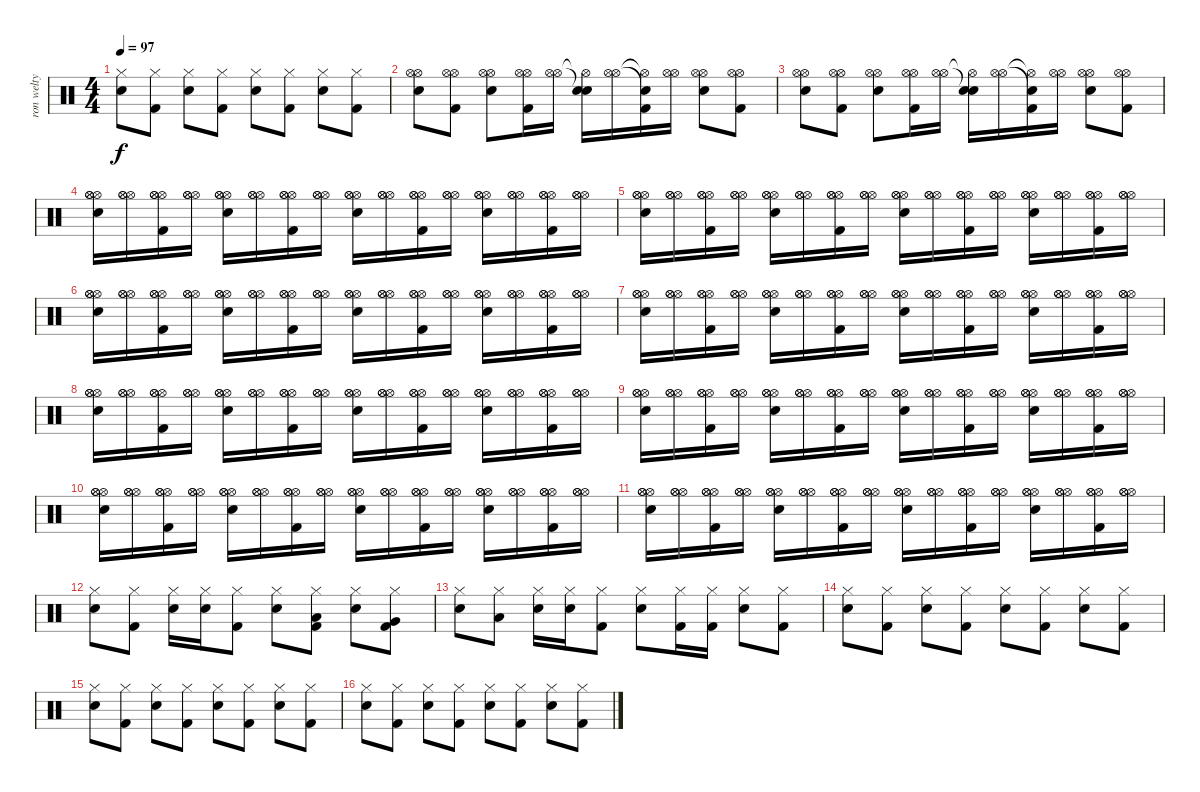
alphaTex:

\track ("ron welty" "ron welty") {instrument percussion}
\staff {score}
\articulation defaults
\ts (4 4)
\tempo 97
\clef neutral
\ks c
("Hi-Hat (closed)" "Electric Snare (hit)").8{dy f} ("Hi-Hat (closed)" "Kick (hit) 2").8 ("Hi-Hat (closed)" "Electric Snare (hit)").8 ("Hi-Hat (closed)" "Kick (hit) 2").8 ("Hi-Hat (closed)" "Electric Snare (hit)").8 ("Hi-Hat (closed)" "Kick (hit) 2").8 ("Hi-Hat (closed)" "Electric Snare (hit)").8 ("Hi-Hat (closed)" "Kick (hit) 2").8 |
("Hi-Hat (open)" "Hi-Hat (open)" "Electric Snare (hit)").8 ("Hi-Hat (open)" "Hi-Hat (open)" "Kick (hit) 2").8 ("Hi-Hat (open)" "Hi-Hat (open)" "Electric Snare (hit)").8 ("Hi-Hat (open)" "Hi-Hat (open)" "Kick (hit) 2").16 ("Hi-Hat (open)" "Hi-Hat (open)").16 ("Hi-Hat (open)"{t} "Snare (hit)"{t} "Electric Snare (hit)").16 ("Hi-Hat (open)" "Hi-Hat (open)").16 ("Hi-Hat (open)"{t} "Snare (hit)"{t} "Kick (hit) 2").16 ("Hi-Hat (open)" "Hi-Hat (open)").16 ("Hi-Hat (open)" "Hi-Hat (open)" "Electric Snare (hit)").8 ("Hi-Hat (open)" "Hi-Hat (open)" "Kick (hit) 2").8 |
("Hi-Hat (open)" "Hi-Hat (open)" "Electric Snare (hit)").8 ("Hi-Hat (open)" "Hi-Hat (open)" "Kick (hit) 2").8 ("Hi-Hat (open)" "Hi-Hat (open)" "Electric Snare (hit)").8 ("Hi-Hat (open)" "Hi-Hat (open)" "Kick (hit) 2").16 ("Hi-Hat (open)" "Hi-Hat (open)").16 ("Hi-Hat (open)"{t} "Snare (hit)"{t} "Electric Snare (hit)").16 ("Hi-Hat (open)" "Hi-Hat (open)").16 ("Hi-Hat (open)"{t} "Snare (hit)"{t} "Kick (hit) 2").16 ("Hi-Hat (open)" "Hi-Hat (open)").16 ("Hi-Hat (open)" "Hi-Hat (open)" "Electric Snare (hit)").8 ("Hi-Hat (open)" "Hi-Hat (open)" "Kick (hit) 2").8 |
("Hi-Hat (open)" "Hi-Hat (open)" "Hi-Hat (open)" "Electric Snare (hit)").16{volume 12} ("Hi-Hat (open)" "Hi-Hat (open)" "Hi-Hat (open)").16 ("Hi-Hat (open)" "Hi-Hat (open)" "Hi-Hat (open)" "Kick (hit) 2").16 ("Hi-Hat (open)" "Hi-Hat (open)" "Hi-Hat (open)").16 ("Hi-Hat (open)" "Hi-Hat (open)" "Hi-Hat (open)" "Electric Snare (hit)").16 ("Hi-Hat (open)" "Hi-Hat (open)" "Hi-Hat (open)").16 ("Hi-Hat (open)" "Hi-Hat (open)" "Hi-Hat (open)" "Kick (hit) 2").16 ("Hi-Hat (open)" "Hi-Hat (open)" "Hi-Hat (open)").16 ("Hi-Hat (open)" "Hi-Hat (open)" "Hi-Hat (open)" "Electric Snare (hit)").16 ("Hi-Hat (open)" "Hi-Hat (open)" "Hi-Hat (open)").16 ("Hi-Hat (open)" "Hi-Hat (open)" "Hi-Hat (open)" "Kick (hit) 2").16 ("Hi-Hat (open)" "Hi-Hat (open)" "Hi-Hat (open)").16 ("Hi-Hat (open)" "Hi-Hat (open)" "Hi-Hat (open)" "Electric Snare (hit)").16 ("Hi-Hat (open)" "Hi-Hat (open)" "Hi-Hat (open)").16 ("Hi-Hat (open)" "Hi-Hat (open)" "Hi-Hat (open)" "Kick (hit) 2").16 ("Hi-Hat (open)" "Hi-Hat (open)" "Hi-Hat (open)").16 |
("Hi-Hat (open)" "Hi-Hat (open)" "Hi-Hat (open)" "Electric Snare (hit)").16{volume 12} ("Hi-Hat (open)" "Hi-Hat (open)" "Hi-Hat (open)").16 ("Hi-Hat (open)" "Hi-Hat (open)" "Hi-Hat (open)" "Kick (hit) 2").16 ("Hi-Hat (open)" "Hi-Hat (open)" "Hi-Hat (open)").16 ("Hi-Hat (open)" "Hi-Hat (open)" "Hi-Hat (open)" "Electric Snare (hit)").16 ("Hi-Hat (open)" "Hi-Hat (open)" "Hi-Hat (open)").16 ("Hi-Hat (open)" "Hi-Hat (open)" "Hi-Hat (open)" "Kick (hit) 2").16 ("Hi-Hat (open)" "Hi-Hat (open)" "Hi-Hat (open)").16 ("Hi-Hat (open)" "Hi-Hat (open)" "Hi-Hat (open)" "Electric Snare (hit)").16 ("Hi-Hat (open)" "Hi-Hat (open)" "Hi-Hat (open)").16 ("Hi-Hat (open)" "Hi-Hat (open)" "Hi-Hat (open)" "Kick (hit) 2").16 ("Hi-Hat (open)" "Hi-Hat (open)" "Hi-Hat (open)").16 ("Hi-Hat (open)" "Hi-Hat (open)" "Hi-Hat (open)" "Electric Snare (hit)").16 ("Hi-Hat (open)" "Hi-Hat (open)" "Hi-Hat (open)").16 ("Hi-Hat (open)" "Hi-Hat (open)" "Hi-Hat (open)" "Kick (hit) 2").16 ("Hi-Hat (open)" "Hi-Hat (open)" "Hi-Hat (open)").16 |
("Hi-Hat (open)" "Hi-Hat (open)" "Hi-Hat (open)" "Electric Snare (hit)").16{volume 12} ("Hi-Hat (open)" "Hi-Hat (open)" "Hi-Hat (open)").16 ("Hi-Hat (open)" "Hi-Hat (open)" "Hi-Hat (open)" "Kick (hit) 2").16 ("Hi-Hat (open)" "Hi-Hat (open)" "Hi-Hat (open)").16 ("Hi-Hat (open)" "Hi-Hat (open)" "Hi-Hat (open)" "Electric Snare (hit)").16 ("Hi-Hat (open)" "Hi-Hat (open)" "Hi-Hat (open)").16 ("Hi-Hat (open)" "Hi-Hat (open)" "Hi-Hat (open)" "Kick (hit) 2").16 ("Hi-Hat (open)" "Hi-Hat (open)" "Hi-Hat (open)").16 ("Hi-Hat (open)" "Hi-Hat (open)" "Hi-Hat (open)" "Electric Snare (hit)").16 ("Hi-Hat (open)" "Hi-Hat (open)" "Hi-Hat (open)").16 ("Hi-Hat (open)" "Hi-Hat (open)" "Hi-Hat (open)" "Kick (hit) 2").16 ("Hi-Hat (open)" "Hi-Hat (open)" "Hi-Hat (open)").16 ("Hi-Hat (open)" "Hi-Hat (open)" "Hi-Hat (open)" "Electric Snare (hit)").16 ("Hi-Hat (open)" "Hi-Hat (open)" "Hi-Hat (open)").16 ("Hi-Hat (open)" "Hi-Hat (open)" "Hi-Hat (open)" "Kick (hit) 2").16 ("Hi-Hat (open)" "Hi-Hat (open)" "Hi-Hat (open)").16 |
("Hi-Hat (open)" "Hi-Hat (open)" "Hi-Hat (open)" "Electric Snare (hit)").16{volume 12} ("Hi-Hat (open)" "Hi-Hat (open)" "Hi-Hat (open)").16 ("Hi-Hat (open)" "Hi-Hat (open)" "Hi-Hat (open)" "Kick (hit) 2").16 ("Hi-Hat (open)" "Hi-Hat (open)" "Hi-Hat (open)").16 ("Hi-Hat (open)" "Hi-Hat (open)" "Hi-Hat (open)" "Electric Snare (hit)").16 ("Hi-Hat (open)" "Hi-Hat (open)" "Hi-Hat (open)").16 ("Hi-Hat (open)" "Hi-Hat (open)" "Hi-Hat (open)" "Kick (hit) 2").16 ("Hi-Hat (open)" "Hi-Hat (open)" "Hi-Hat (open)").16 ("Hi-Hat (open)" "Hi-Hat (open)" "Hi-Hat (open)" "Electric Snare (hit)").16 ("Hi-Hat (open)" "Hi-Hat (open)" "Hi-Hat (open)").16 ("Hi-Hat (open)" "Hi-Hat (open)" "Hi-Hat (open)" "Kick (hit) 2").16 ("Hi-Hat (open)" "Hi-Hat (open)" "Hi-Hat (open)").16 ("Hi-Hat (open)" "Hi-Hat (open)" "Hi-Hat (open)" "Electric Snare (hit)").16 ("Hi-Hat (open)" "Hi-Hat (open)" "Hi-Hat (open)").16 ("Hi-Hat (open)" "Hi-Hat (open)" "Hi-Hat (open)" "Kick (hit) 2").16 ("Hi-Hat (open)" "Hi-Hat (open)" "Hi-Hat (open)").16 |
("Hi-Hat (open)" "Hi-Hat (open)" "Hi-Hat (open)" "Electric Snare (hit)").16{volume 12} ("Hi-Hat (open)" "Hi-Hat (open)" "Hi-Hat (open)").16 ("Hi-Hat (open)" "Hi-Hat (open)" "Hi-Hat (open)" "Kick (hit) 2").16 ("Hi-Hat (open)" "Hi-Hat (open)" "Hi-Hat (open)").16 ("Hi-Hat (open)" "Hi-Hat (open)" "Hi-Hat (open)" "Electric Snare (hit)").16 ("Hi-Hat (open)" "Hi-Hat (open)" "Hi-Hat (open)").16 ("Hi-Hat (open)" "Hi-Hat (open)" "Hi-Hat (open)" "Kick (hit) 2").16 ("Hi-Hat (open)" "Hi-Hat (open)" "Hi-Hat (open)").16 ("Hi-Hat (open)" "Hi-Hat (open)" "Hi-Hat (open)" "Electric Snare (hit)").16 ("Hi-Hat (open)" "Hi-Hat (open)" "Hi-Hat (open)").16 ("Hi-Hat (open)" "Hi-Hat (open)" "Hi-Hat (open)" "Kick (hit) 2").16 ("Hi-Hat (open)" "Hi-Hat (open)" "Hi-Hat (open)").16 ("Hi-Hat (open)" "Hi-Hat (open)" "Hi-Hat (open)" "Electric Snare (hit)").16 ("Hi-Hat (open)" "Hi-Hat (open)" "Hi-Hat (open)").16 ("Hi-Hat (open)" "Hi-Hat (open)" "Hi-Hat (open)" "Kick (hit) 2").16 ("Hi-Hat (open)" "Hi-Hat (open)" "Hi-Hat (open)").16 |
("Hi-Hat (open)" "Hi-Hat (open)" "Hi-Hat (open)" "Electric Snare (hit)").16{volume 12} ("Hi-Hat (open)" "Hi-Hat (open)" "Hi-Hat (open)").16 ("Hi-Hat (open)" "Hi-Hat (open)" "Hi-Hat (open)" "Kick (hit) 2").16 ("Hi-Hat (open)" "Hi-Hat (open)" "Hi-Hat (open)").16 ("Hi-Hat (open)" "Hi-Hat (open)" "Hi-Hat (open)" "Electric Snare (hit)").16 ("Hi-Hat (open)" "Hi-Hat (open)" "Hi-Hat (open)").16 ("Hi-Hat (open)" "Hi-Hat (open)" "Hi-Hat (open)" "Kick (hit) 2").16 ("Hi-Hat (open)" "Hi-Hat (open)" "Hi-Hat (open)").16 ("Hi-Hat (open)" "Hi-Hat (open)" "Hi-Hat (open)" "Electric Snare (hit)").16 ("Hi-Hat (open)" "Hi-Hat (open)" "Hi-Hat (open)").16 ("Hi-Hat (open)" "Hi-Hat (open)" "Hi-Hat (open)" "Kick (hit) 2").16 ("Hi-Hat (open)" "Hi-Hat (open)" "Hi-Hat (open)").16 ("Hi-Hat (open)" "Hi-Hat (open)" "Hi-Hat (open)" "Electric Snare (hit)").16 ("Hi-Hat (open)" "Hi-Hat (open)" "Hi-Hat (open)").16 ("Hi-Hat (open)" "Hi-Hat (open)" "Hi-Hat (open)" "Kick (hit) 2").16 ("Hi-Hat (open)" "Hi-Hat (open)" "Hi-Hat (open)").16 |
("Hi-Hat (open)" "Hi-Hat (open)" "Hi-Hat (open)" "Electric Snare (hit)").16{volume 12} ("Hi-Hat (open)" "Hi-Hat (open)" "Hi-Hat (open)").16 ("Hi-Hat (open)" "Hi-Hat (open)" "Hi-Hat (open)" "Kick (hit) 2").16 ("Hi-Hat (open)" "Hi-Hat (open)" "Hi-Hat (open)").16 ("Hi-Hat (open)" "Hi-Hat (open)" "Hi-Hat (open)" "Electric Snare (hit)").16 ("Hi-Hat (open)" "Hi-Hat (open)" "Hi-Hat (open)").16 ("Hi-Hat (open)" "Hi-Hat (open)" "Hi-Hat (open)" "Kick (hit) 2").16 ("Hi-Hat (open)" "Hi-Hat (open)" "Hi-Hat (open)").16 ("Hi-Hat (open)" "Hi-Hat (open)" "Hi-Hat (open)" "Electric Snare (hit)").16 ("Hi-Hat (open)" "Hi-Hat (open)" "Hi-Hat (open)").16 ("Hi-Hat (open)" "Hi-Hat (open)" "Hi-Hat (open)" "Kick (hit) 2").16 ("Hi-Hat (open)" "Hi-Hat (open)" "Hi-Hat (open)").16 ("Hi-Hat (open)" "Hi-Hat (open)" "Hi-Hat (open)" "Electric Snare (hit)").16 ("Hi-Hat (open)" "Hi-Hat (open)" "Hi-Hat (open)").16 ("Hi-Hat (open)" "Hi-Hat (open)" "Hi-Hat (open)" "Kick (hit) 2").16 ("Hi-Hat (open)" "Hi-Hat (open)" "Hi-Hat (open)").16 |
("Hi-Hat (open)" "Hi-Hat (open)" "Hi-Hat (open)" "Electric Snare (hit)").16{volume 12} ("Hi-Hat (open)" "Hi-Hat (open)" "Hi-Hat (open)").16 ("Hi-Hat (open)" "Hi-Hat (open)" "Hi-Hat (open)" "Kick (hit) 2").16 ("Hi-Hat (open)" "Hi-Hat (open)" "Hi-Hat (open)").16 ("Hi-Hat (open)" "Hi-Hat (open)" "Hi-Hat (open)" "Electric Snare (hit)").16 ("Hi-Hat (open)" "Hi-Hat (open)" "Hi-Hat (open)").16 ("Hi-Hat (open)" "Hi-Hat (open)" "Hi-Hat (open)" "Kick (hit) 2").16 ("Hi-Hat (open)" "Hi-Hat (open)" "Hi-Hat (open)").16 ("Hi-Hat (open)" "Hi-Hat (open)" "Hi-Hat (open)" "Electric Snare (hit)").16 ("Hi-Hat (open)" "Hi-Hat (open)" "Hi-Hat (open)").16 ("Hi-Hat (open)" "Hi-Hat (open)" "Hi-Hat (open)" "Kick (hit) 2").16 ("Hi-Hat (open)" "Hi-Hat (open)" "Hi-Hat (open)").16 ("Hi-Hat (open)" "Hi-Hat (open)" "Hi-Hat (open)" "Electric Snare (hit)").16 ("Hi-Hat (open)" "Hi-Hat (open)" "Hi-Hat (open)").16 ("Hi-Hat (open)" "Hi-Hat (open)" "Hi-Hat (open)" "Kick (hit) 2").16 ("Hi-Hat (open)" "Hi-Hat (open)" "Hi-Hat (open)").16 |
("Hi-Hat (closed)" "Electric Snare (hit)").8 ("Hi-Hat (closed)" "Kick (hit) 2").8 ("Hi-Hat (closed)" "Electric Snare (hit)").16 ("Hi-Hat (closed)" "Electric Snare (hit)").16 ("Hi-Hat (closed)" "Kick (hit) 2").8 ("Hi-Hat (closed)" "Electric Snare (hit)").8 ("Hi-Hat (closed)" "Low Tom (hit)" "Kick (hit) 2").8 ("Hi-Hat (closed)" "Electric Snare (hit)").8 ("Hi-Hat (closed)" "Very Low Tom (hit)" "Kick (hit) 2").8 |
("Hi-Hat (closed)" "Electric Snare (hit)").8 ("Hi-Hat (closed)" "Low Tom (hit)").8 ("Hi-Hat (closed)" "Electric Snare (hit)").16 ("Hi-Hat (closed)" "Electric Snare (hit)").16 ("Hi-Hat (closed)" "Kick (hit) 2").8 ("Hi-Hat (closed)" "Electric Snare (hit)").8 ("Hi-Hat (closed)" "Kick (hit) 2").16 ("Hi-Hat (closed)" "Kick (hit) 2").16 ("Hi-Hat (closed)" "Electric Snare (hit)").8 ("Hi-Hat (closed)" "Kick (hit) 2").8 |
("Hi-Hat (closed)" "Electric Snare (hit)").8 ("Hi-Hat (closed)" "Kick (hit) 2").8 ("Hi-Hat (closed)" "Electric Snare (hit)").8 ("Hi-Hat (closed)" "Kick (hit) 2").8 ("Hi-Hat (closed)" "Electric Snare (hit)").8 ("Hi-Hat (closed)" "Kick (hit) 2").8 ("Hi-Hat (closed)" "Electric Snare (hit)").8 ("Hi-Hat (closed)" "Kick (hit) 2").8 |
("Hi-Hat (closed)" "Electric Snare (hit)").8 ("Hi-Hat (closed)" "Kick (hit) 2").8 ("Hi-Hat (closed)" "Electric Snare (hit)").8 ("Hi-Hat (closed)" "Kick (hit) 2").8 ("Hi-Hat (closed)" "Electric Snare (hit)").8 ("Hi-Hat (closed)" "Kick (hit) 2").8 ("Hi-Hat (closed)" "Electric Snare (hit)").8 ("Hi-Hat (closed)" "Kick (hit) 2").8 |
("Hi-Hat (closed)" "Electric Snare (hit)").8 ("Hi-Hat (closed)" "Kick (hit) 2").8 ("Hi-Hat (closed)" "Electric Snare (hit)").8 ("Hi-Hat (closed)" "Kick (hit) 2").8 ("Hi-Hat (closed)" "Electric Snare (hit)").8 ("Hi-Hat (closed)" "Kick (hit) 2").8 ("Hi-Hat (closed)" "Electric Snare (hit)").8 ("Hi-Hat (closed)" "Kick (hit) 2").8
